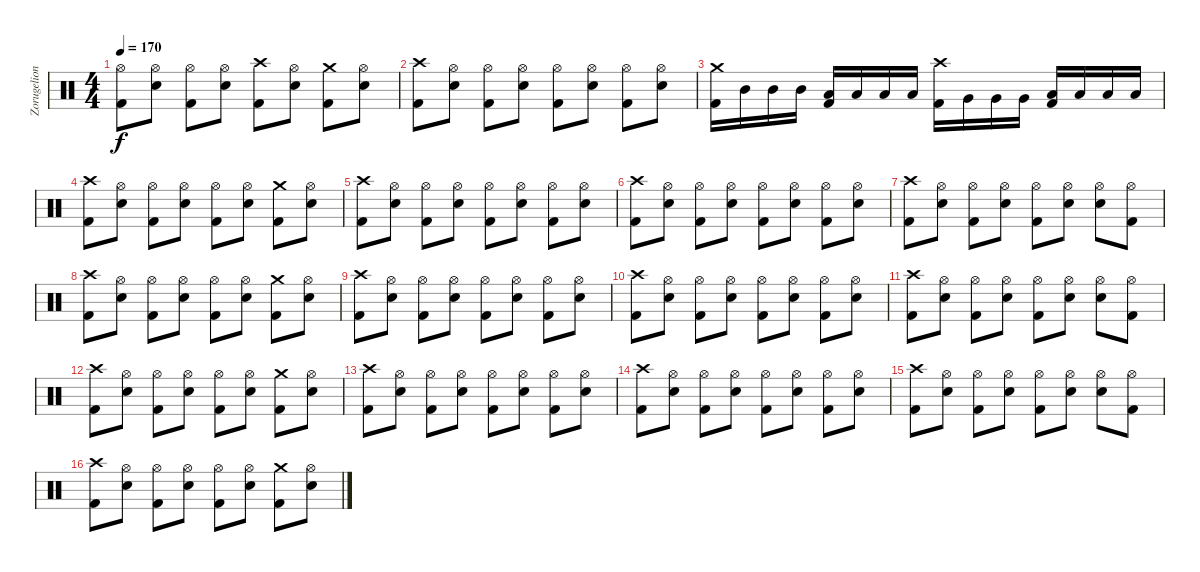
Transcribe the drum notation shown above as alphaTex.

\track ("Zorugelion" "Zorugelion") {instrument percussion}
\staff {score}
\articulation defaults
\ts (4 4)
\tempo 170
\clef neutral
\ks c
("Hi-Hat (open)" "Kick (hit) 2").8{dy f} ("Hi-Hat (open)" "Electric Snare (hit)").8 ("Hi-Hat (open)" "Kick (hit) 2").8 ("Hi-Hat (open)" "Electric Snare (hit)").8 ("Crash high (hit)" "Kick (hit) 2").8 ("Hi-Hat (open)" "Electric Snare (hit)").8 ("Crash medium (hit)" "Kick (hit) 2").8 ("Hi-Hat (open)" "Electric Snare (hit)").8 |
("Crash high (hit)" "Kick (hit) 2").8 ("Hi-Hat (open)" "Electric Snare (hit)").8 ("Hi-Hat (open)" "Kick (hit) 2").8 ("Hi-Hat (open)" "Electric Snare (hit)").8 ("Hi-Hat (open)" "Kick (hit) 2").8 ("Hi-Hat (open)" "Electric Snare (hit)").8 ("Hi-Hat (open)" "Kick (hit) 2").8 ("Hi-Hat (open)" "Electric Snare (hit)").8 |
("Crash medium (hit)" "Kick (hit) 2").16 "Mid Tom (hit)".16 "Mid Tom (hit)".16 "Mid Tom (hit)".16 ("Low Tom (hit)" "Kick (hit) 2").16 "Low Tom (hit)".16 "Low Tom (hit)".16 "Low Tom (hit)".16 ("Crash high (hit)" "Kick (hit) 2").16 "Very Low Tom (hit)".16 "Very Low Tom (hit)".16 "Very Low Tom (hit)".16 ("Low Floor Tom (hit)" "Kick (hit) 2").16 "Low Floor Tom (hit)".16 "Low Floor Tom (hit)".16 "Low Floor Tom (hit)".16 |
("Crash high (hit)" "Kick (hit) 2").8 ("Hi-Hat (open)" "Electric Snare (hit)").8 ("Hi-Hat (open)" "Kick (hit) 2").8 ("Hi-Hat (open)" "Electric Snare (hit)").8 ("Hi-Hat (open)" "Kick (hit) 2").8 ("Hi-Hat (open)" "Electric Snare (hit)").8 ("Crash medium (hit)" "Kick (hit) 2").8 ("Hi-Hat (open)" "Electric Snare (hit)").8 |
("Crash high (hit)" "Kick (hit) 2").8 ("Hi-Hat (open)" "Electric Snare (hit)").8 ("Hi-Hat (open)" "Kick (hit) 2").8 ("Hi-Hat (open)" "Electric Snare (hit)").8 ("Hi-Hat (open)" "Kick (hit) 2").8 ("Hi-Hat (open)" "Electric Snare (hit)").8 ("Hi-Hat (open)" "Kick (hit) 2").8 ("Hi-Hat (open)" "Electric Snare (hit)").8 |
("Crash high (hit)" "Kick (hit) 2").8 ("Hi-Hat (open)" "Electric Snare (hit)").8 ("Hi-Hat (open)" "Kick (hit) 2").8 ("Hi-Hat (open)" "Electric Snare (hit)").8 ("Hi-Hat (open)" "Kick (hit) 2").8 ("Hi-Hat (open)" "Electric Snare (hit)").8 ("Hi-Hat (open)" "Kick (hit) 2").8 ("Hi-Hat (open)" "Electric Snare (hit)").8 |
("Crash high (hit)" "Kick (hit) 2").8 ("Hi-Hat (open)" "Electric Snare (hit)").8 ("Hi-Hat (open)" "Kick (hit) 2").8 ("Hi-Hat (open)" "Electric Snare (hit)").8 ("Hi-Hat (open)" "Kick (hit) 2").8 ("Hi-Hat (open)" "Electric Snare (hit)").8 ("Hi-Hat (open)" "Electric Snare (hit)").8 ("Hi-Hat (open)" "Kick (hit) 2").8 |
("Crash high (hit)" "Kick (hit) 2").8 ("Hi-Hat (open)" "Electric Snare (hit)").8 ("Hi-Hat (open)" "Kick (hit) 2").8 ("Hi-Hat (open)" "Electric Snare (hit)").8 ("Hi-Hat (open)" "Kick (hit) 2").8 ("Hi-Hat (open)" "Electric Snare (hit)").8 ("Crash medium (hit)" "Kick (hit) 2").8 ("Hi-Hat (open)" "Electric Snare (hit)").8 |
("Crash high (hit)" "Kick (hit) 2").8 ("Hi-Hat (open)" "Electric Snare (hit)").8 ("Hi-Hat (open)" "Kick (hit) 2").8 ("Hi-Hat (open)" "Electric Snare (hit)").8 ("Hi-Hat (open)" "Kick (hit) 2").8 ("Hi-Hat (open)" "Electric Snare (hit)").8 ("Hi-Hat (open)" "Kick (hit) 2").8 ("Hi-Hat (open)" "Electric Snare (hit)").8 |
("Crash high (hit)" "Kick (hit) 2").8 ("Hi-Hat (open)" "Electric Snare (hit)").8 ("Hi-Hat (open)" "Kick (hit) 2").8 ("Hi-Hat (open)" "Electric Snare (hit)").8 ("Hi-Hat (open)" "Kick (hit) 2").8 ("Hi-Hat (open)" "Electric Snare (hit)").8 ("Hi-Hat (open)" "Kick (hit) 2").8 ("Hi-Hat (open)" "Electric Snare (hit)").8 |
("Crash high (hit)" "Kick (hit) 2").8 ("Hi-Hat (open)" "Electric Snare (hit)").8 ("Hi-Hat (open)" "Kick (hit) 2").8 ("Hi-Hat (open)" "Electric Snare (hit)").8 ("Hi-Hat (open)" "Kick (hit) 2").8 ("Hi-Hat (open)" "Electric Snare (hit)").8 ("Hi-Hat (open)" "Electric Snare (hit)").8 ("Hi-Hat (open)" "Kick (hit) 2").8 |
("Crash high (hit)" "Kick (hit) 2").8 ("Hi-Hat (open)" "Electric Snare (hit)").8 ("Hi-Hat (open)" "Kick (hit) 2").8 ("Hi-Hat (open)" "Electric Snare (hit)").8 ("Hi-Hat (open)" "Kick (hit) 2").8 ("Hi-Hat (open)" "Electric Snare (hit)").8 ("Crash medium (hit)" "Kick (hit) 2").8 ("Hi-Hat (open)" "Electric Snare (hit)").8 |
("Crash high (hit)" "Kick (hit) 2").8 ("Hi-Hat (open)" "Electric Snare (hit)").8 ("Hi-Hat (open)" "Kick (hit) 2").8 ("Hi-Hat (open)" "Electric Snare (hit)").8 ("Hi-Hat (open)" "Kick (hit) 2").8 ("Hi-Hat (open)" "Electric Snare (hit)").8 ("Hi-Hat (open)" "Kick (hit) 2").8 ("Hi-Hat (open)" "Electric Snare (hit)").8 |
("Crash high (hit)" "Kick (hit) 2").8 ("Hi-Hat (open)" "Electric Snare (hit)").8 ("Hi-Hat (open)" "Kick (hit) 2").8 ("Hi-Hat (open)" "Electric Snare (hit)").8 ("Hi-Hat (open)" "Kick (hit) 2").8 ("Hi-Hat (open)" "Electric Snare (hit)").8 ("Hi-Hat (open)" "Kick (hit) 2").8 ("Hi-Hat (open)" "Electric Snare (hit)").8 |
("Crash high (hit)" "Kick (hit) 2").8 ("Hi-Hat (open)" "Electric Snare (hit)").8 ("Hi-Hat (open)" "Kick (hit) 2").8 ("Hi-Hat (open)" "Electric Snare (hit)").8 ("Hi-Hat (open)" "Kick (hit) 2").8 ("Hi-Hat (open)" "Electric Snare (hit)").8 ("Hi-Hat (open)" "Electric Snare (hit)").8 ("Hi-Hat (open)" "Kick (hit) 2").8 |
("Crash high (hit)" "Kick (hit) 2").8 ("Hi-Hat (open)" "Electric Snare (hit)").8 ("Hi-Hat (open)" "Kick (hit) 2").8 ("Hi-Hat (open)" "Electric Snare (hit)").8 ("Hi-Hat (open)" "Kick (hit) 2").8 ("Hi-Hat (open)" "Electric Snare (hit)").8 ("Crash medium (hit)" "Kick (hit) 2").8 ("Hi-Hat (open)" "Electric Snare (hit)").8
